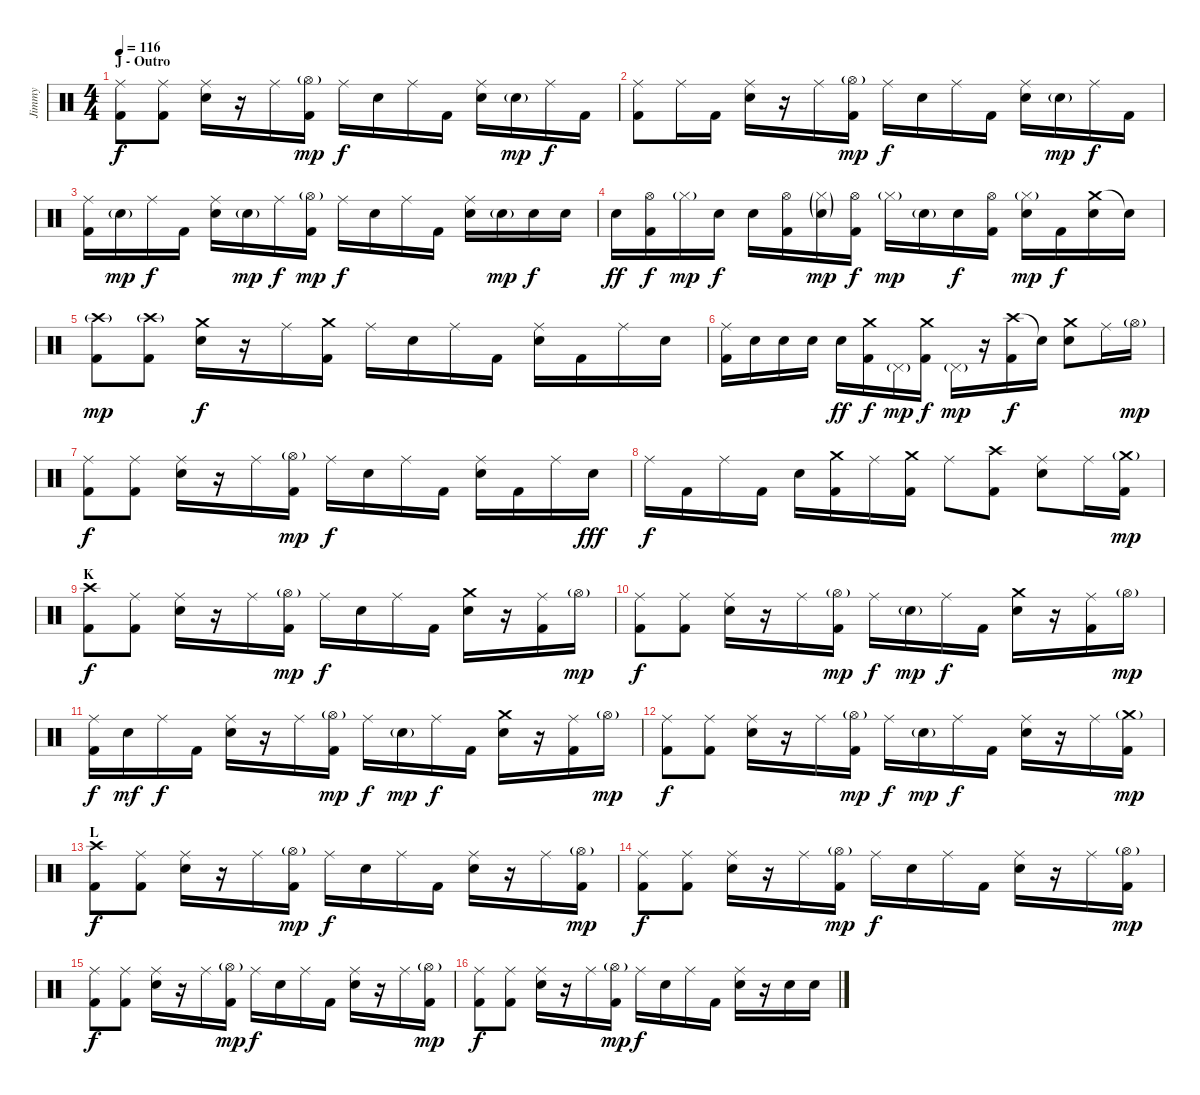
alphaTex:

\track ("Jimmy" "Jimmy") {instrument percussion}
\staff {score}
\articulation defaults
\ts (4 4)
\section ("" "J - Outro")
\tempo 116
\clef neutral
\ks c
("Ride (middle)" "Kick (hit) 2").8{dy f} ("Ride (middle)" "Kick (hit) 2").8 ("Ride (middle)" "Electric Snare (hit)").16 r.16 "Ride (middle)".16 ("Hi-Hat (open)"{g} "Kick (hit) 2").16{dy mp} "Ride (middle)".16{dy f} "Electric Snare (hit)".16 "Ride (middle)".16 "Kick (hit) 2".16 ("Ride (middle)" "Electric Snare (hit)").16 "Electric Snare (hit)"{g}.16{dy mp} "Ride (middle)".16{dy f} "Kick (hit) 2".16 |
("Ride (middle)" "Kick (hit) 2").8 "Ride (middle)".16 "Kick (hit) 2".16 ("Ride (middle)" "Electric Snare (hit)").16 r.16 "Ride (middle)".16 ("Hi-Hat (open)"{g} "Kick (hit) 2").16{dy mp} "Ride (middle)".16{dy f} "Electric Snare (hit)".16 "Ride (middle)".16 "Kick (hit) 2".16 ("Ride (middle)" "Electric Snare (hit)").16 "Electric Snare (hit)"{g}.16{dy mp} "Ride (middle)".16{dy f} "Kick (hit) 2".16 |
("Ride (middle)" "Kick (hit) 2").16 "Electric Snare (hit)"{g}.16{dy mp} "Ride (middle)".16{dy f} "Kick (hit) 2".16 ("Ride (middle)" "Electric Snare (hit)").16 "Electric Snare (hit)"{g}.16{dy mp} "Ride (middle)".16{dy f} ("Hi-Hat (open)"{g} "Kick (hit) 2").16{dy mp} "Ride (middle)".16{dy f} "Electric Snare (hit)".16 "Ride (middle)".16 "Kick (hit) 2".16 ("Ride (middle)" "Electric Snare (hit)").16 "Electric Snare (hit)"{g}.16{dy mp} "Electric Snare (hit)".16{dy f} "Electric Snare (hit)".16 |
"Electric Snare (hit)".16{dy ff} ("Hi-Hat (open)" "Kick (hit) 2").16{dy f} "Hi-Hat (closed)"{g}.16{dy mp} "Electric Snare (hit)".16{dy f} "Electric Snare (hit)".16 ("Hi-Hat (open)" "Kick (hit) 2").16 ("Hi-Hat (closed)"{g} "Electric Snare (hit)"{g}).16{dy mp} ("Hi-Hat (open)" "Kick (hit) 2").16{dy f} "Hi-Hat (closed)"{g}.16{dy mp} "Electric Snare (hit)"{g}.16 "Electric Snare (hit)".16{dy f} ("Hi-Hat (open)" "Kick (hit) 2").16 ("Hi-Hat (closed)"{g} "Electric Snare (hit)").16{dy mp} "Kick (hit) 2".16{dy f} ("Crash medium (hit)" "Electric Snare (hit)").16 "Snare (hit)"{t}.16 |
("Crash high (hit)"{g} "Kick (hit) 2").8{dy mp} ("Crash high (hit)"{g} "Kick (hit) 2").8 ("Crash medium (hit)" "Electric Snare (hit)").16{dy f} r.16 "Ride (middle)".16 ("Crash medium (hit)" "Kick (hit) 2").16 "Ride (middle)".16 "Electric Snare (hit)".16 "Ride (middle)".16 "Kick (hit) 2".16 ("Ride (middle)" "Electric Snare (hit)").16 "Kick (hit) 2".16 "Ride (middle)".16 "Electric Snare (hit)".16 |
("Ride (middle)" "Kick (hit) 2").16 "Electric Snare (hit)".16 "Electric Snare (hit)".16 "Electric Snare (hit)".16 "Electric Snare (hit)".16{dy ff} ("Crash medium (hit)" "Kick (hit) 2").16{dy f} "Pedal Hi-Hat (hit)"{g}.16{dy mp} ("Crash medium (hit)" "Kick (hit) 2").16{dy f} "Pedal Hi-Hat (hit)"{g}.16{dy mp} r.16 ("Crash high (hit)" "Kick (hit) 2").16{dy f} "Snare (hit)"{t}.16 ("Crash medium (hit)" "Electric Snare (hit)").8 "Ride (middle)".16 "Hi-Hat (open)"{g}.16{dy mp} |
("Ride (middle)" "Kick (hit) 2").8{dy f} ("Ride (middle)" "Kick (hit) 2").8 ("Ride (middle)" "Electric Snare (hit)").16 r.16 "Ride (middle)".16 ("Hi-Hat (open)"{g} "Kick (hit) 2").16{dy mp} "Ride (middle)".16{dy f} "Electric Snare (hit)".16 "Ride (middle)".16 "Kick (hit) 2".16 ("Ride (middle)" "Electric Snare (hit)").16 "Kick (hit) 2".16 "Ride (middle)".16 "Electric Snare (hit)".16{dy fff} |
"Ride (middle)".16{dy f} "Kick (hit) 2".16 "Ride (middle)".16 "Kick (hit) 2".16 "Electric Snare (hit)".16 ("Crash medium (hit)" "Kick (hit) 2").16 "Ride (middle)".16 ("Crash medium (hit)" "Kick (hit) 2").16 "Ride (middle)".8 ("Crash high (hit)" "Kick (hit) 2").8 ("Ride (middle)" "Electric Snare (hit)").8 "Ride (middle)".16 ("Crash medium (hit)"{g} "Kick (hit) 2").16{dy mp} |
\section ("" "K")
("Crash high (hit)" "Kick (hit) 2").8{dy f} ("Ride (middle)" "Kick (hit) 2").8 ("Ride (middle)" "Electric Snare (hit)").16 r.16 "Ride (middle)".16 ("Hi-Hat (open)"{g} "Kick (hit) 2").16{dy mp} "Ride (middle)".16{dy f} "Electric Snare (hit)".16 "Ride (middle)".16 "Kick (hit) 2".16 ("Crash medium (hit)" "Electric Snare (hit)").16 r.16 ("Ride (middle)" "Kick (hit) 2").16 "Hi-Hat (open)"{g}.16{dy mp} |
("Ride (middle)" "Kick (hit) 2").8{dy f} ("Ride (middle)" "Kick (hit) 2").8 ("Ride (middle)" "Electric Snare (hit)").16 r.16 "Ride (middle)".16 ("Hi-Hat (open)"{g} "Kick (hit) 2").16{dy mp} "Ride (middle)".16{dy f} "Electric Snare (hit)"{g}.16{dy mp} "Ride (middle)".16{dy f} "Kick (hit) 2".16 ("Crash medium (hit)" "Electric Snare (hit)").16 r.16 ("Ride (middle)" "Kick (hit) 2").16 "Hi-Hat (open)"{g}.16{dy mp} |
("Ride (middle)" "Kick (hit) 2").16{dy f} "Electric Snare (hit)".16{dy mf} "Ride (middle)".16{dy f} "Kick (hit) 2".16 ("Ride (middle)" "Electric Snare (hit)").16 r.16 "Ride (middle)".16 ("Hi-Hat (open)"{g} "Kick (hit) 2").16{dy mp} "Ride (middle)".16{dy f} "Electric Snare (hit)"{g}.16{dy mp} "Ride (middle)".16{dy f} "Kick (hit) 2".16 ("Crash medium (hit)" "Electric Snare (hit)").16 r.16 ("Ride (middle)" "Kick (hit) 2").16 "Hi-Hat (open)"{g}.16{dy mp} |
("Ride (middle)" "Kick (hit) 2").8{dy f} ("Ride (middle)" "Kick (hit) 2").8 ("Ride (middle)" "Electric Snare (hit)").16 r.16 "Ride (middle)".16 ("Hi-Hat (open)"{g} "Kick (hit) 2").16{dy mp} "Ride (middle)".16{dy f} "Electric Snare (hit)"{g}.16{dy mp} "Ride (middle)".16{dy f} "Kick (hit) 2".16 ("Ride (middle)" "Electric Snare (hit)").16 r.16 "Ride (middle)".16 ("Crash medium (hit)"{g} "Kick (hit) 2").16{dy mp} |
\section ("" "L")
("Crash high (hit)" "Kick (hit) 2").8{dy f} ("Ride (middle)" "Kick (hit) 2").8 ("Ride (middle)" "Electric Snare (hit)").16 r.16 "Ride (middle)".16 ("Hi-Hat (open)"{g} "Kick (hit) 2").16{dy mp} "Ride (middle)".16{dy f} "Electric Snare (hit)".16 "Ride (middle)".16 "Kick (hit) 2".16 ("Ride (middle)" "Electric Snare (hit)").16 r.16 "Ride (middle)".16 ("Hi-Hat (open)"{g} "Kick (hit) 2").16{dy mp} |
("Ride (middle)" "Kick (hit) 2").8{dy f} ("Ride (middle)" "Kick (hit) 2").8 ("Ride (middle)" "Electric Snare (hit)").16 r.16 "Ride (middle)".16 ("Hi-Hat (open)"{g} "Kick (hit) 2").16{dy mp} "Ride (middle)".16{dy f} "Electric Snare (hit)".16 "Ride (middle)".16 "Kick (hit) 2".16 ("Ride (middle)" "Electric Snare (hit)").16 r.16 "Ride (middle)".16 ("Hi-Hat (open)"{g} "Kick (hit) 2").16{dy mp} |
("Ride (middle)" "Kick (hit) 2").8{dy f} ("Ride (middle)" "Kick (hit) 2").8 ("Ride (middle)" "Electric Snare (hit)").16 r.16 "Ride (middle)".16 ("Hi-Hat (open)"{g} "Kick (hit) 2").16{dy mp} "Ride (middle)".16{dy f} "Electric Snare (hit)".16 "Ride (middle)".16 "Kick (hit) 2".16 ("Ride (middle)" "Electric Snare (hit)").16 r.16 "Ride (middle)".16 ("Hi-Hat (open)"{g} "Kick (hit) 2").16{dy mp} |
("Ride (middle)" "Kick (hit) 2").8{dy f} ("Ride (middle)" "Kick (hit) 2").8 ("Ride (middle)" "Electric Snare (hit)").16 r.16 "Ride (middle)".16 ("Hi-Hat (open)"{g} "Kick (hit) 2").16{dy mp} "Ride (middle)".16{dy f} "Electric Snare (hit)".16 "Ride (middle)".16 "Kick (hit) 2".16 ("Ride (middle)" "Electric Snare (hit)").16 r.16 "Electric Snare (hit)".16 "Electric Snare (hit)".16
